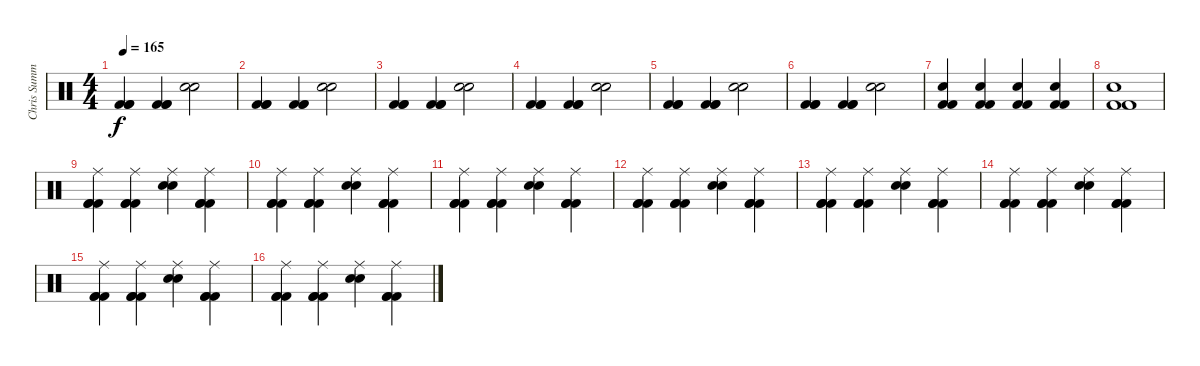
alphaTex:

\track ("Chris Summers" "Chris Summ") {instrument percussion}
\staff {score}
\articulation defaults
\ts (4 4)
\tempo 165
\clef neutral
\ks c
("Kick (hit) 2" "Kick (hit) 2" "Kick (hit) 2").4{dy f} ("Kick (hit) 2" "Kick (hit) 2" "Kick (hit) 2").4 ("Electric Snare (hit)" "Hand Clap (hit)").2 |
("Kick (hit) 2" "Kick (hit) 2" "Kick (hit) 2").4 ("Kick (hit) 2" "Kick (hit) 2" "Kick (hit) 2").4 ("Electric Snare (hit)" "Hand Clap (hit)").2 |
("Kick (hit) 2" "Kick (hit) 2" "Kick (hit) 2").4 ("Kick (hit) 2" "Kick (hit) 2" "Kick (hit) 2").4 ("Electric Snare (hit)" "Hand Clap (hit)").2 |
("Kick (hit) 2" "Kick (hit) 2" "Kick (hit) 2").4 ("Kick (hit) 2" "Kick (hit) 2" "Kick (hit) 2").4 ("Electric Snare (hit)" "Hand Clap (hit)").2 |
("Kick (hit) 2" "Kick (hit) 2" "Kick (hit) 2").4 ("Kick (hit) 2" "Kick (hit) 2" "Kick (hit) 2").4 ("Electric Snare (hit)" "Hand Clap (hit)").2 |
("Kick (hit) 2" "Kick (hit) 2" "Kick (hit) 2").4 ("Kick (hit) 2" "Kick (hit) 2" "Kick (hit) 2").4 ("Electric Snare (hit)" "Hand Clap (hit)").2 |
("Electric Snare (hit)" "Kick (hit) 2" "Kick (hit) 2").4 ("Electric Snare (hit)" "Kick (hit) 2" "Kick (hit) 2").4 ("Electric Snare (hit)" "Kick (hit) 2" "Kick (hit) 2").4 ("Electric Snare (hit)" "Kick (hit) 2" "Kick (hit) 2").4 |
("Electric Snare (hit)" "Kick (hit) 2" "Kick (hit) 2").1 |
("Kick (hit) 2" "Kick (hit) 2" "Kick (hit) 2" "Ride (middle)").4 ("Kick (hit) 2" "Kick (hit) 2" "Kick (hit) 2" "Ride (middle)").4 ("Electric Snare (hit)" "Hand Clap (hit)" "Ride (middle)").4 ("Kick (hit) 2" "Kick (hit) 2" "Kick (hit) 2" "Ride (middle)").4 |
("Kick (hit) 2" "Kick (hit) 2" "Kick (hit) 2" "Ride (middle)").4 ("Kick (hit) 2" "Kick (hit) 2" "Kick (hit) 2" "Ride (middle)").4 ("Electric Snare (hit)" "Hand Clap (hit)" "Ride (middle)").4 ("Kick (hit) 2" "Kick (hit) 2" "Kick (hit) 2" "Ride (middle)").4 |
("Kick (hit) 2" "Kick (hit) 2" "Kick (hit) 2" "Ride (middle)").4 ("Kick (hit) 2" "Kick (hit) 2" "Kick (hit) 2" "Ride (middle)").4 ("Electric Snare (hit)" "Hand Clap (hit)" "Ride (middle)").4 ("Kick (hit) 2" "Kick (hit) 2" "Kick (hit) 2" "Ride (middle)").4 |
("Kick (hit) 2" "Kick (hit) 2" "Kick (hit) 2" "Ride (middle)").4 ("Kick (hit) 2" "Kick (hit) 2" "Kick (hit) 2" "Ride (middle)").4 ("Electric Snare (hit)" "Hand Clap (hit)" "Ride (middle)").4 ("Kick (hit) 2" "Kick (hit) 2" "Kick (hit) 2" "Ride (middle)").4 |
("Kick (hit) 2" "Kick (hit) 2" "Kick (hit) 2" "Ride (middle)").4 ("Kick (hit) 2" "Kick (hit) 2" "Kick (hit) 2" "Ride (middle)").4 ("Electric Snare (hit)" "Hand Clap (hit)" "Ride (middle)").4 ("Kick (hit) 2" "Kick (hit) 2" "Kick (hit) 2" "Ride (middle)").4 |
("Kick (hit) 2" "Kick (hit) 2" "Kick (hit) 2" "Ride (middle)").4 ("Kick (hit) 2" "Kick (hit) 2" "Kick (hit) 2" "Ride (middle)").4 ("Electric Snare (hit)" "Hand Clap (hit)" "Ride (middle)").4 ("Kick (hit) 2" "Kick (hit) 2" "Kick (hit) 2" "Ride (middle)").4 |
("Kick (hit) 2" "Kick (hit) 2" "Kick (hit) 2" "Ride (middle)").4 ("Kick (hit) 2" "Kick (hit) 2" "Kick (hit) 2" "Ride (middle)").4 ("Electric Snare (hit)" "Hand Clap (hit)" "Ride (middle)").4 ("Kick (hit) 2" "Kick (hit) 2" "Kick (hit) 2" "Ride (middle)").4 |
("Kick (hit) 2" "Kick (hit) 2" "Kick (hit) 2" "Ride (middle)").4 ("Kick (hit) 2" "Kick (hit) 2" "Kick (hit) 2" "Ride (middle)").4 ("Electric Snare (hit)" "Hand Clap (hit)" "Ride (middle)").4 ("Kick (hit) 2" "Kick (hit) 2" "Kick (hit) 2" "Ride (middle)").4
